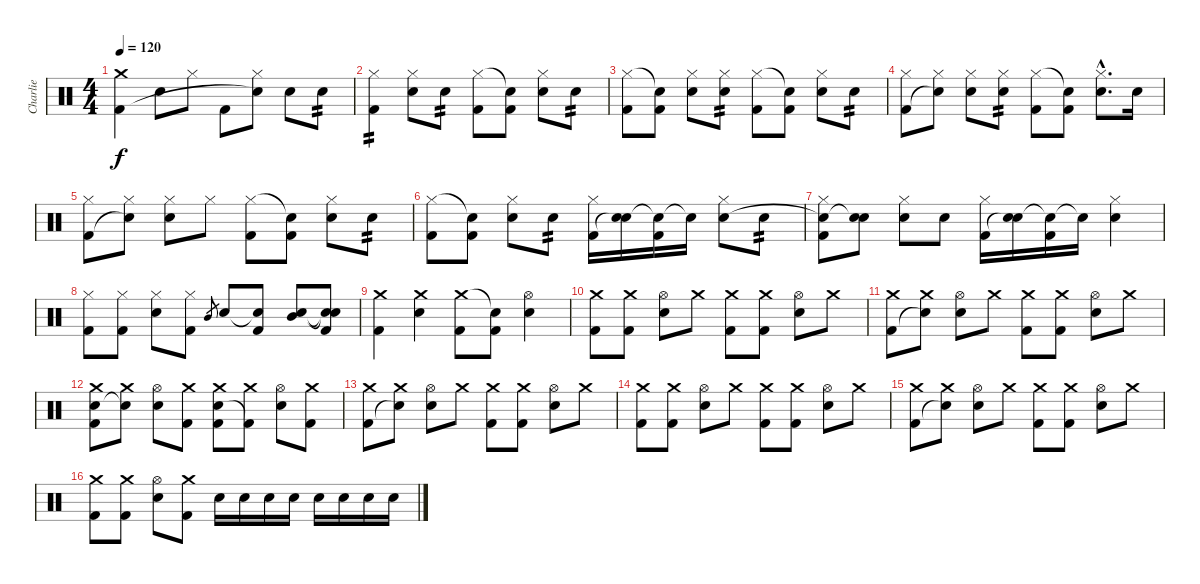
\track ("Charlie" "Charlie") {instrument percussion}
\staff {score}
\articulation defaults
\ts (4 4)
\tempo 120
\clef neutral
\ks c
("Crash medium (hit)" "Kick (hit) 2").4{dy f} "Snare (hit) 2".8 "Hi-Hat (closed)".8 "Kick (hit) 2".8 ("Hi-Hat (closed)" "Snare (hit)"{t}).8 "Snare (hit) 2".8 "Snare (hit) 2".8{tp 2} |
("Hi-Hat (closed)" "Kick (hit) 2").4{tp 2} ("Hi-Hat (closed)" "Snare (hit) 2").8 "Snare (hit) 2".8{tp 2} ("Hi-Hat (closed)" "Kick (hit) 2").8 ("Snare (hit)"{t} "Kick (hit) 2").8 ("Hi-Hat (closed)" "Snare (hit) 2").8 "Snare (hit) 2".8{tp 2} |
("Hi-Hat (closed)" "Kick (hit) 2").8 ("Snare (hit)"{t} "Kick (hit) 2").8 ("Hi-Hat (closed)" "Snare (hit) 2").8 ("Hi-Hat (closed)" "Snare (hit) 2").8{tp 2} ("Hi-Hat (closed)" "Kick (hit) 2").8 ("Snare (hit)"{t} "Kick (hit) 2").8 ("Hi-Hat (closed)" "Snare (hit) 2").8 "Snare (hit) 2".8{tp 2} |
("Hi-Hat (closed)" "Kick (hit) 2").8 ("Hi-Hat (closed)" "Snare (hit)"{t}).8 ("Hi-Hat (closed)" "Snare (hit) 2").8 ("Hi-Hat (closed)" "Snare (hit) 2").8{tp 2} ("Hi-Hat (closed)" "Kick (hit) 2").8 ("Snare (hit)"{t} "Kick (hit) 2").8 ("Hi-Hat (closed)"{hac} "Snare (hit) 2"{hac}).8{d} "Snare (hit) 2".16 |
("Hi-Hat (closed)" "Kick (hit) 2").8 ("Hi-Hat (closed)" "Snare (hit)"{t}).8 ("Hi-Hat (closed)" "Snare (hit) 2").8 "Hi-Hat (closed)".8 ("Hi-Hat (closed)" "Kick (hit) 2").8 ("Snare (hit)"{t} "Kick (hit) 2").8 ("Hi-Hat (closed)" "Snare (hit) 2").8 "Snare (hit) 2".8{tp 2} |
("Hi-Hat (closed)" "Kick (hit) 2").8 ("Snare (hit)"{t} "Kick (hit) 2").8 ("Hi-Hat (closed)" "Snare (hit) 2").8 "Snare (hit) 2".8{tp 2} ("Hi-Hat (closed)" "Kick (hit) 2").16 ("Snare (hit) 2" "Snare (hit)"{t}).16 ("Snare (hit)"{t} "Kick (hit) 2").16 "Snare (hit)"{t}.16 ("Hi-Hat (closed)" "Snare (hit) 2").8 "Snare (hit) 2".8{tp 2} |
("Hi-Hat (closed)" "Snare (hit)"{t} "Kick (hit) 2").8 ("Snare (hit) 2" "Snare (hit)"{t}).8 ("Hi-Hat (closed)" "Snare (hit) 2").8 "Snare (hit) 2".8 ("Hi-Hat (closed)" "Kick (hit) 2").16 ("Snare (hit) 2" "Snare (hit)"{t}).16 ("Snare (hit)"{t} "Kick (hit) 2").16 "Snare (hit)"{t}.16 ("Hi-Hat (closed)" "Snare (hit) 2").4 |
("Hi-Hat (closed)" "Kick (hit) 2").8 ("Hi-Hat (closed)" "Kick (hit) 2").8 ("Hi-Hat (closed)" "Snare (hit) 2").8 ("Hi-Hat (closed)" "Kick (hit) 2").8 "Mid Tom (hit)".8{gr} "Snare (hit) 2".8 ("Snare (hit)"{t} "Kick (hit) 2").8 ("Mid Tom (hit)" "Snare (hit) 2").8 ("Snare (hit)"{t} "Snare (hit)"{t} "Kick (hit) 2").8 |
("Crash medium (hit)" "Kick (hit) 2").4 ("Crash medium (hit)" "Snare (hit) 2").4 ("Crash medium (hit)" "Kick (hit) 2").8 ("Snare (hit)"{t} "Kick (hit) 2").8 ("Hi-Hat (open)" "Snare (hit) 2").4 |
("Crash medium (hit)" "Kick (hit) 2").8 ("Crash medium (hit)" "Kick (hit) 2").8 ("Hi-Hat (open)" "Snare (hit) 2").8 "Crash medium (hit)".8 ("Crash medium (hit)" "Kick (hit) 2").8 ("Crash medium (hit)" "Kick (hit) 2").8 ("Hi-Hat (open)" "Snare (hit) 2").8 "Crash medium (hit)".8 |
("Crash medium (hit)" "Kick (hit) 2").8 ("Crash medium (hit)" "Snare (hit)"{t}).8 ("Hi-Hat (open)" "Snare (hit) 2").8 "Crash medium (hit)".8 ("Crash medium (hit)" "Kick (hit) 2").8 ("Crash medium (hit)" "Kick (hit) 2").8 ("Hi-Hat (open)" "Snare (hit) 2").8 "Crash medium (hit)".8 |
("Crash medium (hit)" "Snare (hit) 2" "Kick (hit) 2").8 ("Crash medium (hit)" "Snare (hit)"{t}).8 ("Hi-Hat (open)" "Snare (hit) 2").8 ("Crash medium (hit)" "Kick (hit) 2").8 ("Crash medium (hit)" "Snare (hit) 2" "Kick (hit) 2").8 ("Crash medium (hit)" "Kick (hit) 2"{t}).8 ("Hi-Hat (open)" "Snare (hit) 2").8 ("Crash medium (hit)" "Kick (hit) 2").8 |
("Crash medium (hit)" "Kick (hit) 2").8 ("Crash medium (hit)" "Snare (hit)"{t}).8 ("Hi-Hat (open)" "Snare (hit) 2").8 "Crash medium (hit)".8 ("Crash medium (hit)" "Kick (hit) 2").8 ("Crash medium (hit)" "Kick (hit) 2").8 ("Hi-Hat (open)" "Snare (hit) 2").8 "Crash medium (hit)".8 |
("Crash medium (hit)" "Kick (hit) 2").8 ("Crash medium (hit)" "Kick (hit) 2").8 ("Hi-Hat (open)" "Snare (hit) 2").8 "Crash medium (hit)".8 ("Crash medium (hit)" "Kick (hit) 2").8 ("Crash medium (hit)" "Kick (hit) 2").8 ("Hi-Hat (open)" "Snare (hit) 2").8 "Crash medium (hit)".8 |
("Crash medium (hit)" "Kick (hit) 2").8 ("Crash medium (hit)" "Snare (hit)"{t}).8 ("Hi-Hat (open)" "Snare (hit) 2").8 "Crash medium (hit)".8 ("Crash medium (hit)" "Kick (hit) 2").8 ("Crash medium (hit)" "Kick (hit) 2").8 ("Hi-Hat (open)" "Snare (hit) 2").8 "Crash medium (hit)".8 |
("Crash medium (hit)" "Kick (hit) 2").8 ("Crash medium (hit)" "Kick (hit) 2").8 ("Hi-Hat (open)" "Snare (hit) 2").8 ("Crash medium (hit)" "Kick (hit) 2").8 "Snare (hit) 2".16 "Snare (hit) 2".16 "Snare (hit) 2".16 "Snare (hit) 2".16 "Snare (hit) 2".16 "Snare (hit) 2".16 "Snare (hit) 2".16 "Snare (hit) 2".16
